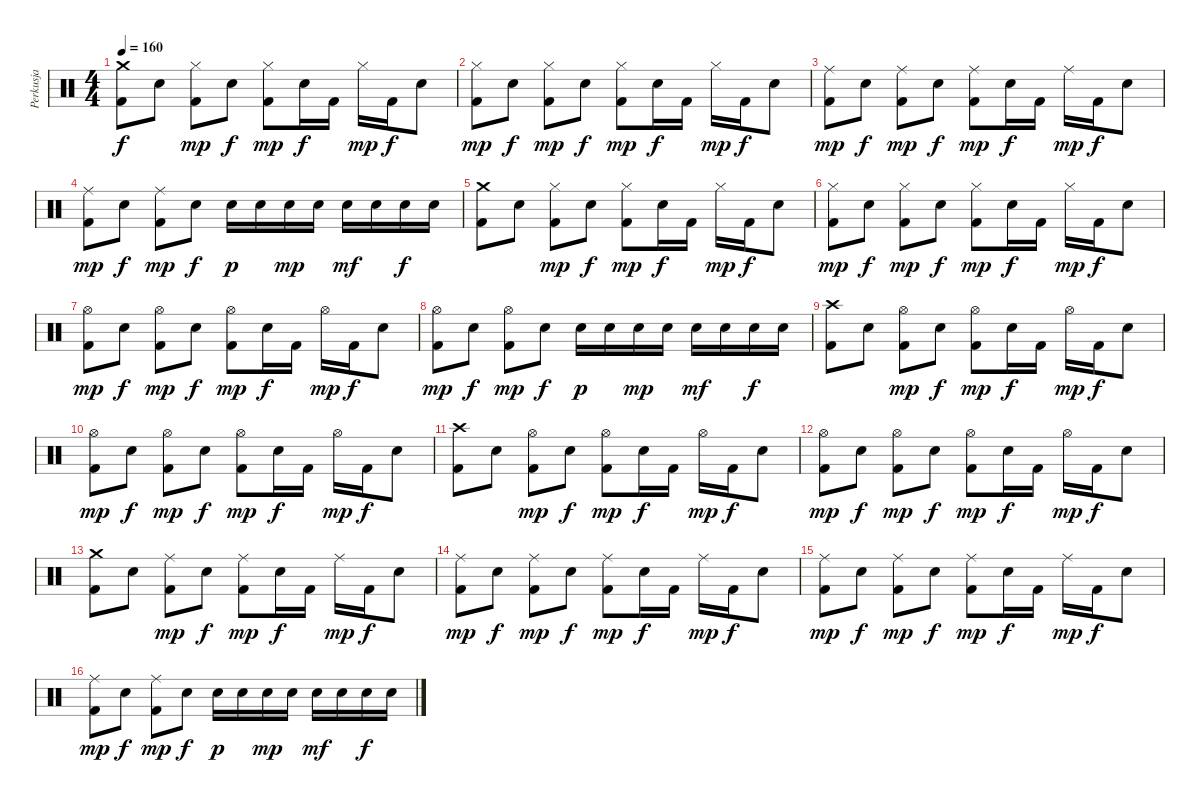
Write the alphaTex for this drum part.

\track ("Perkusja" "Perkusja") {instrument percussion}
\staff {score}
\articulation defaults
\ts (4 4)
\tempo 160
\clef neutral
\ks c
("Kick (hit) 2" "Crash medium (hit)").8{dy f} "Electric Snare (hit)".8 ("Kick (hit) 2" "Hi-Hat (closed)").8{dy mp} "Electric Snare (hit)".8{dy f} ("Kick (hit) 2" "Hi-Hat (closed)").8{dy mp} "Electric Snare (hit)".16{dy f} "Kick (hit) 2".16 "Hi-Hat (closed)".16{dy mp} "Kick (hit) 2".16{dy f} "Electric Snare (hit)".8 |
("Kick (hit) 2" "Hi-Hat (closed)").8{dy mp} "Electric Snare (hit)".8{dy f} ("Kick (hit) 2" "Hi-Hat (closed)").8{dy mp} "Electric Snare (hit)".8{dy f} ("Kick (hit) 2" "Hi-Hat (closed)").8{dy mp} "Electric Snare (hit)".16{dy f} "Kick (hit) 2".16 "Hi-Hat (closed)".16{dy mp} "Kick (hit) 2".16{dy f} "Electric Snare (hit)".8 |
("Kick (hit) 2" "Ride (middle)").8{dy mp} "Electric Snare (hit)".8{dy f} ("Kick (hit) 2" "Ride (middle)").8{dy mp} "Electric Snare (hit)".8{dy f} ("Kick (hit) 2" "Ride (middle)").8{dy mp} "Electric Snare (hit)".16{dy f} "Kick (hit) 2".16 "Ride (middle)".16{dy mp} "Kick (hit) 2".16{dy f} "Electric Snare (hit)".8 |
("Kick (hit) 2" "Ride (middle)").8{dy mp} "Electric Snare (hit)".8{dy f} ("Kick (hit) 2" "Ride (middle)").8{dy mp} "Electric Snare (hit)".8{dy f} "Electric Snare (hit)".16{dy p} "Electric Snare (hit)".16 "Electric Snare (hit)".16{dy mp} "Electric Snare (hit)".16 "Electric Snare (hit)".16{dy mf} "Electric Snare (hit)".16 "Electric Snare (hit)".16{dy f} "Electric Snare (hit)".16 |
("Kick (hit) 2" "Crash medium (hit)").8 "Electric Snare (hit)".8 ("Kick (hit) 2" "Hi-Hat (closed)").8{dy mp} "Electric Snare (hit)".8{dy f} ("Kick (hit) 2" "Hi-Hat (closed)").8{dy mp} "Electric Snare (hit)".16{dy f} "Kick (hit) 2".16 "Hi-Hat (closed)".16{dy mp} "Kick (hit) 2".16{dy f} "Electric Snare (hit)".8 |
("Kick (hit) 2" "Hi-Hat (closed)").8{dy mp} "Electric Snare (hit)".8{dy f} ("Kick (hit) 2" "Hi-Hat (closed)").8{dy mp} "Electric Snare (hit)".8{dy f} ("Kick (hit) 2" "Hi-Hat (closed)").8{dy mp} "Electric Snare (hit)".16{dy f} "Kick (hit) 2".16 "Hi-Hat (closed)".16{dy mp} "Kick (hit) 2".16{dy f} "Electric Snare (hit)".8 |
("Kick (hit) 2" "Hi-Hat (open)").8{dy mp} "Electric Snare (hit)".8{dy f} ("Kick (hit) 2" "Hi-Hat (open)").8{dy mp} "Electric Snare (hit)".8{dy f} ("Kick (hit) 2" "Hi-Hat (open)").8{dy mp} "Electric Snare (hit)".16{dy f} "Kick (hit) 2".16 "Hi-Hat (open)".16{dy mp} "Kick (hit) 2".16{dy f} "Electric Snare (hit)".8 |
("Kick (hit) 2" "Hi-Hat (open)").8{dy mp} "Electric Snare (hit)".8{dy f} ("Kick (hit) 2" "Hi-Hat (open)").8{dy mp} "Electric Snare (hit)".8{dy f} "Electric Snare (hit)".16{dy p} "Electric Snare (hit)".16 "Electric Snare (hit)".16{dy mp} "Electric Snare (hit)".16 "Electric Snare (hit)".16{dy mf} "Electric Snare (hit)".16 "Electric Snare (hit)".16{dy f} "Electric Snare (hit)".16 |
("Kick (hit) 2" "Crash high (hit)").8 "Electric Snare (hit)".8 ("Kick (hit) 2" "Hi-Hat (open)").8{dy mp} "Electric Snare (hit)".8{dy f} ("Kick (hit) 2" "Hi-Hat (open)").8{dy mp} "Electric Snare (hit)".16{dy f} "Kick (hit) 2".16 "Hi-Hat (open)".16{dy mp} "Kick (hit) 2".16{dy f} "Electric Snare (hit)".8 |
("Kick (hit) 2" "Hi-Hat (open)").8{dy mp} "Electric Snare (hit)".8{dy f} ("Kick (hit) 2" "Hi-Hat (open)").8{dy mp} "Electric Snare (hit)".8{dy f} ("Kick (hit) 2" "Hi-Hat (open)").8{dy mp} "Electric Snare (hit)".16{dy f} "Kick (hit) 2".16 "Hi-Hat (open)".16{dy mp} "Kick (hit) 2".16{dy f} "Electric Snare (hit)".8 |
("Kick (hit) 2" "Crash high (hit)").8 "Electric Snare (hit)".8 ("Kick (hit) 2" "Hi-Hat (open)").8{dy mp} "Electric Snare (hit)".8{dy f} ("Kick (hit) 2" "Hi-Hat (open)").8{dy mp} "Electric Snare (hit)".16{dy f} "Kick (hit) 2".16 "Hi-Hat (open)".16{dy mp} "Kick (hit) 2".16{dy f} "Electric Snare (hit)".8 |
("Kick (hit) 2" "Hi-Hat (open)").8{dy mp} "Electric Snare (hit)".8{dy f} ("Kick (hit) 2" "Hi-Hat (open)").8{dy mp} "Electric Snare (hit)".8{dy f} ("Kick (hit) 2" "Hi-Hat (open)").8{dy mp} "Electric Snare (hit)".16{dy f} "Kick (hit) 2".16 "Hi-Hat (open)".16{dy mp} "Kick (hit) 2".16{dy f} "Electric Snare (hit)".8 |
("Kick (hit) 2" "Crash medium (hit)").8 "Electric Snare (hit)".8 ("Kick (hit) 2" "Ride (middle)").8{dy mp} "Electric Snare (hit)".8{dy f} ("Kick (hit) 2" "Ride (middle)").8{dy mp} "Electric Snare (hit)".16{dy f} "Kick (hit) 2".16 "Ride (middle)".16{dy mp} "Kick (hit) 2".16{dy f} "Electric Snare (hit)".8 |
("Kick (hit) 2" "Ride (middle)").8{dy mp} "Electric Snare (hit)".8{dy f} ("Kick (hit) 2" "Ride (middle)").8{dy mp} "Electric Snare (hit)".8{dy f} ("Kick (hit) 2" "Ride (middle)").8{dy mp} "Electric Snare (hit)".16{dy f} "Kick (hit) 2".16 "Ride (middle)".16{dy mp} "Kick (hit) 2".16{dy f} "Electric Snare (hit)".8 |
("Kick (hit) 2" "Ride (middle)").8{dy mp} "Electric Snare (hit)".8{dy f} ("Kick (hit) 2" "Ride (middle)").8{dy mp} "Electric Snare (hit)".8{dy f} ("Kick (hit) 2" "Ride (middle)").8{dy mp} "Electric Snare (hit)".16{dy f} "Kick (hit) 2".16 "Ride (middle)".16{dy mp} "Kick (hit) 2".16{dy f} "Electric Snare (hit)".8 |
("Kick (hit) 2" "Ride (middle)").8{dy mp} "Electric Snare (hit)".8{dy f} ("Kick (hit) 2" "Ride (middle)").8{dy mp} "Electric Snare (hit)".8{dy f} "Electric Snare (hit)".16{dy p} "Electric Snare (hit)".16 "Electric Snare (hit)".16{dy mp} "Electric Snare (hit)".16 "Electric Snare (hit)".16{dy mf} "Electric Snare (hit)".16 "Electric Snare (hit)".16{dy f} "Electric Snare (hit)".16
